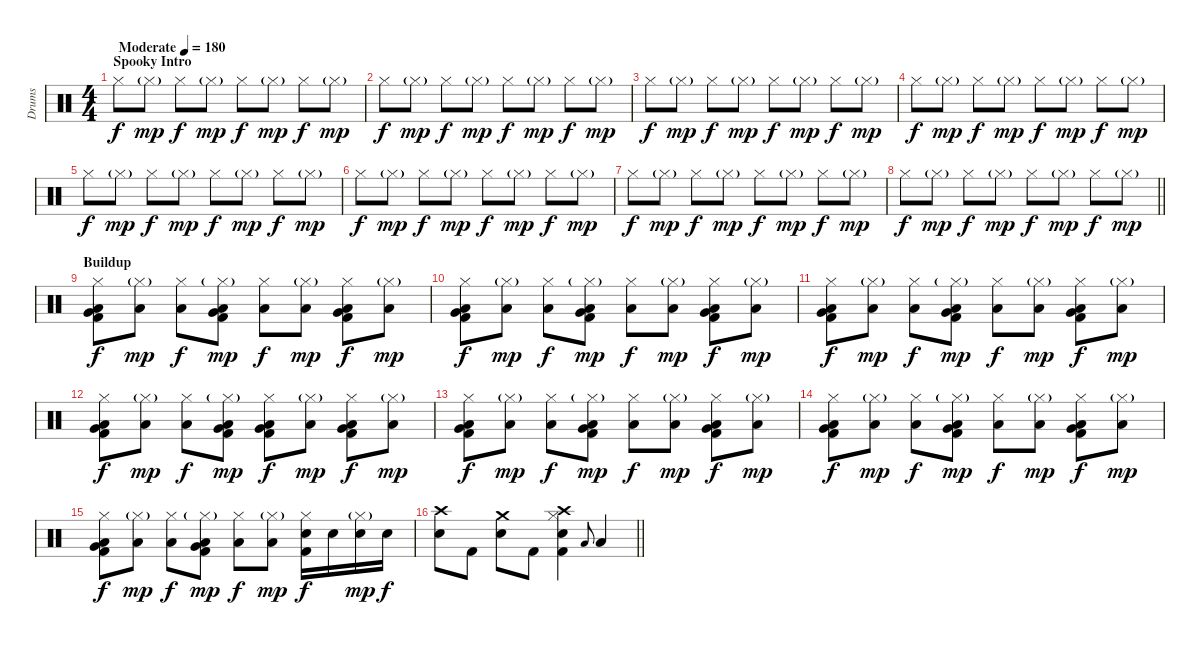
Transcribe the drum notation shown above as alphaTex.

\track ("Drums" "Drums") {instrument percussion}
\staff {score}
\articulation defaults
\ts (4 4)
\section ("" "Spooky Intro")
\tempo (180 "Moderate")
\clef neutral
\ks c "Hi-Hat (closed)".8{dy f} "Hi-Hat (closed)"{g}.8{dy mp} "Hi-Hat (closed)".8{dy f} "Hi-Hat (closed)"{g}.8{dy mp} "Hi-Hat (closed)".8{dy f} "Hi-Hat (closed)"{g}.8{dy mp} "Hi-Hat (closed)".8{dy f} "Hi-Hat (closed)"{g}.8{dy mp}
|
"Hi-Hat (closed)".8{dy f} "Hi-Hat (closed)"{g}.8{dy mp} "Hi-Hat (closed)".8{dy f} "Hi-Hat (closed)"{g}.8{dy mp} "Hi-Hat (closed)".8{dy f} "Hi-Hat (closed)"{g}.8{dy mp} "Hi-Hat (closed)".8{dy f} "Hi-Hat (closed)"{g}.8{dy mp} |
"Hi-Hat (closed)".8{dy f} "Hi-Hat (closed)"{g}.8{dy mp} "Hi-Hat (closed)".8{dy f} "Hi-Hat (closed)"{g}.8{dy mp} "Hi-Hat (closed)".8{dy f} "Hi-Hat (closed)"{g}.8{dy mp} "Hi-Hat (closed)".8{dy f} "Hi-Hat (closed)"{g}.8{dy mp} |
"Hi-Hat (closed)".8{dy f} "Hi-Hat (closed)"{g}.8{dy mp} "Hi-Hat (closed)".8{dy f} "Hi-Hat (closed)"{g}.8{dy mp} "Hi-Hat (closed)".8{dy f} "Hi-Hat (closed)"{g}.8{dy mp} "Hi-Hat (closed)".8{dy f} "Hi-Hat (closed)"{g}.8{dy mp} |
"Hi-Hat (closed)".8{dy f} "Hi-Hat (closed)"{g}.8{dy mp} "Hi-Hat (closed)".8{dy f} "Hi-Hat (closed)"{g}.8{dy mp} "Hi-Hat (closed)".8{dy f} "Hi-Hat (closed)"{g}.8{dy mp} "Hi-Hat (closed)".8{dy f} "Hi-Hat (closed)"{g}.8{dy mp} |
"Hi-Hat (closed)".8{dy f} "Hi-Hat (closed)"{g}.8{dy mp} "Hi-Hat (closed)".8{dy f} "Hi-Hat (closed)"{g}.8{dy mp} "Hi-Hat (closed)".8{dy f} "Hi-Hat (closed)"{g}.8{dy mp} "Hi-Hat (closed)".8{dy f} "Hi-Hat (closed)"{g}.8{dy mp} |
"Hi-Hat (closed)".8{dy f} "Hi-Hat (closed)"{g}.8{dy mp} "Hi-Hat (closed)".8{dy f} "Hi-Hat (closed)"{g}.8{dy mp} "Hi-Hat (closed)".8{dy f} "Hi-Hat (closed)"{g}.8{dy mp} "Hi-Hat (closed)".8{dy f} "Hi-Hat (closed)"{g}.8{dy mp} |
\barLineRight lightlight "Hi-Hat (closed)".8{dy f} "Hi-Hat (closed)"{g}.8{dy mp} "Hi-Hat (closed)".8{dy f} "Hi-Hat (closed)"{g}.8{dy mp} "Hi-Hat (closed)".8{dy f} "Hi-Hat (closed)"{g}.8{dy mp} "Hi-Hat (closed)".8{dy f} "Hi-Hat (closed)"{g}.8{dy mp}
|
\section ("" "Buildup")
("Hi-Hat (closed)" "Low Tom (hit)" "Very Low Tom (hit)" "Kick (hit) 2").8{dy f} ("Hi-Hat (closed)"{g} "Low Floor Tom (hit)").8{dy mp} ("Hi-Hat (closed)" "Low Floor Tom (hit)").8{dy f} ("Hi-Hat (closed)"{g} "Low Tom (hit)" "Very Low Tom (hit)" "Kick (hit) 2").8{dy mp} ("Hi-Hat (closed)" "Low Floor Tom (hit)").8{dy f} ("Hi-Hat (closed)"{g} "Low Floor Tom (hit)").8{dy mp} ("Hi-Hat (closed)" "Very Low Tom (hit)" "Low Floor Tom (hit)" "Kick (hit) 2").8{dy f} ("Hi-Hat (closed)"{g} "Low Floor Tom (hit)").8{dy mp} |
("Hi-Hat (closed)" "Low Tom (hit)" "Very Low Tom (hit)" "Kick (hit) 2").8{dy f} ("Hi-Hat (closed)"{g} "Low Floor Tom (hit)").8{dy mp} ("Hi-Hat (closed)" "Low Floor Tom (hit)").8{dy f} ("Hi-Hat (closed)"{g} "Low Tom (hit)" "Very Low Tom (hit)" "Kick (hit) 2").8{dy mp} ("Hi-Hat (closed)" "Low Floor Tom (hit)").8{dy f} ("Hi-Hat (closed)"{g} "Low Floor Tom (hit)").8{dy mp} ("Hi-Hat (closed)" "Very Low Tom (hit)" "Low Floor Tom (hit)" "Kick (hit) 2").8{dy f} ("Hi-Hat (closed)"{g} "Low Floor Tom (hit)").8{dy mp} |
("Hi-Hat (closed)" "Low Tom (hit)" "Very Low Tom (hit)" "Kick (hit) 2").8{dy f} ("Hi-Hat (closed)"{g} "Low Floor Tom (hit)").8{dy mp} ("Hi-Hat (closed)" "Low Floor Tom (hit)").8{dy f} ("Hi-Hat (closed)"{g} "Low Tom (hit)" "Very Low Tom (hit)" "Kick (hit) 2").8{dy mp} ("Hi-Hat (closed)" "Low Floor Tom (hit)").8{dy f} ("Hi-Hat (closed)"{g} "Low Floor Tom (hit)").8{dy mp} ("Hi-Hat (closed)" "Very Low Tom (hit)" "Low Floor Tom (hit)" "Kick (hit) 2").8{dy f} ("Hi-Hat (closed)"{g} "Low Floor Tom (hit)").8{dy mp} |
("Hi-Hat (closed)" "Low Tom (hit)" "Very Low Tom (hit)" "Kick (hit) 2").8{dy f} ("Hi-Hat (closed)"{g} "Low Floor Tom (hit)").8{dy mp} ("Hi-Hat (closed)" "Low Floor Tom (hit)").8{dy f} ("Hi-Hat (closed)"{g} "Low Tom (hit)" "Very Low Tom (hit)" "Kick (hit) 2").8{dy mp} ("Hi-Hat (closed)" "Very Low Tom (hit)" "Low Floor Tom (hit)" "Kick (hit) 2").8{dy f} ("Hi-Hat (closed)"{g} "Low Floor Tom (hit)").8{dy mp} ("Hi-Hat (closed)" "Very Low Tom (hit)" "Low Floor Tom (hit)" "Kick (hit) 2").8{dy f} ("Hi-Hat (closed)"{g} "Low Floor Tom (hit)").8{dy mp} |
("Hi-Hat (closed)" "Low Tom (hit)" "Very Low Tom (hit)" "Kick (hit) 2").8{dy f} ("Hi-Hat (closed)"{g} "Low Floor Tom (hit)").8{dy mp} ("Hi-Hat (closed)" "Low Floor Tom (hit)").8{dy f} ("Hi-Hat (closed)"{g} "Low Tom (hit)" "Very Low Tom (hit)" "Kick (hit) 2").8{dy mp} ("Hi-Hat (closed)" "Low Floor Tom (hit)").8{dy f} ("Hi-Hat (closed)"{g} "Low Floor Tom (hit)").8{dy mp} ("Hi-Hat (closed)" "Very Low Tom (hit)" "Low Floor Tom (hit)" "Kick (hit) 2").8{dy f} ("Hi-Hat (closed)"{g} "Low Floor Tom (hit)").8{dy mp} |
("Hi-Hat (closed)" "Low Tom (hit)" "Very Low Tom (hit)" "Kick (hit) 2").8{dy f} ("Hi-Hat (closed)"{g} "Low Floor Tom (hit)").8{dy mp} ("Hi-Hat (closed)" "Low Floor Tom (hit)").8{dy f} ("Hi-Hat (closed)"{g} "Low Tom (hit)" "Very Low Tom (hit)" "Kick (hit) 2").8{dy mp} ("Hi-Hat (closed)" "Low Floor Tom (hit)").8{dy f} ("Hi-Hat (closed)"{g} "Low Floor Tom (hit)").8{dy mp} ("Hi-Hat (closed)" "Very Low Tom (hit)" "Low Floor Tom (hit)" "Kick (hit) 2").8{dy f} ("Hi-Hat (closed)"{g} "Low Floor Tom (hit)").8{dy mp} |
("Hi-Hat (closed)" "Low Tom (hit)" "Very Low Tom (hit)" "Kick (hit) 2").8{dy f} ("Hi-Hat (closed)"{g} "Low Floor Tom (hit)").8{dy mp} ("Hi-Hat (closed)" "Low Floor Tom (hit)").8{dy f} ("Hi-Hat (closed)"{g} "Low Tom (hit)" "Very Low Tom (hit)" "Kick (hit) 2").8{dy mp} ("Hi-Hat (closed)" "Low Floor Tom (hit)").8{dy f} ("Hi-Hat (closed)"{g} "Low Floor Tom (hit)").8{dy mp} ("Hi-Hat (closed)" "Snare (hit) 2" "Kick (hit) 2").16{dy f} "Snare (hit) 2".16 ("Hi-Hat (closed)"{g} "Snare (hit) 2").16{dy mp} "Snare (hit) 2".16{dy f} |
\barLineRight lightlight
("Crash high (hit)" "Snare (hit) 2").8 "Kick (hit) 2".8 ("Crash medium (hit)" "Snare (hit) 2").8 "Kick (hit) 2".8 ("Crash high (hit)" "Hi-Hat (closed)" "Snare (hit) 2" "Kick (hit) 2").4 "Low Floor Tom (hit)".8{gr onbeat} "Low Floor Tom (hit)".4
